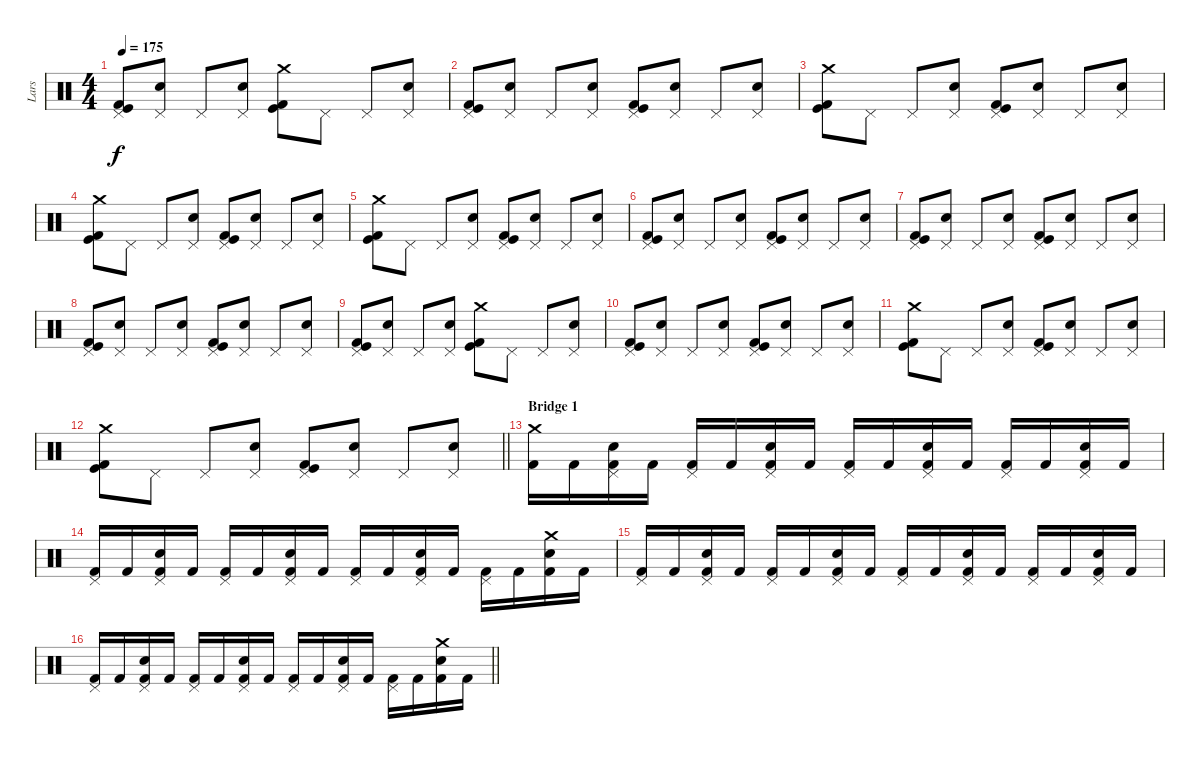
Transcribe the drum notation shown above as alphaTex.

\track ("Lars" "Lars") {instrument percussion}
\staff {score}
\articulation defaults
\ts (4 4)
\tempo 175
\clef neutral
\ks c
("Pedal Hi-Hat (hit)" "Kick (hit)" "Kick (hit) 2").8{dy f} ("Pedal Hi-Hat (hit)" "Electric Snare (hit)").8 "Pedal Hi-Hat (hit)".8 ("Pedal Hi-Hat (hit)" "Electric Snare (hit)").8 ("Crash medium (hit)" "Kick (hit)" "Kick (hit) 2").8 "Pedal Hi-Hat (hit)".8 "Pedal Hi-Hat (hit)".8 ("Pedal Hi-Hat (hit)" "Electric Snare (hit)").8 |
("Pedal Hi-Hat (hit)" "Kick (hit)" "Kick (hit) 2").8 ("Pedal Hi-Hat (hit)" "Electric Snare (hit)").8 "Pedal Hi-Hat (hit)".8 ("Pedal Hi-Hat (hit)" "Electric Snare (hit)").8 ("Pedal Hi-Hat (hit)" "Kick (hit)" "Kick (hit) 2").8 ("Pedal Hi-Hat (hit)" "Electric Snare (hit)").8 "Pedal Hi-Hat (hit)".8 ("Pedal Hi-Hat (hit)" "Electric Snare (hit)").8 |
("Crash medium (hit)" "Kick (hit)" "Kick (hit) 2").8 "Pedal Hi-Hat (hit)".8 "Pedal Hi-Hat (hit)".8 ("Pedal Hi-Hat (hit)" "Electric Snare (hit)").8 ("Pedal Hi-Hat (hit)" "Kick (hit)" "Kick (hit) 2").8 ("Pedal Hi-Hat (hit)" "Electric Snare (hit)").8 "Pedal Hi-Hat (hit)".8 ("Pedal Hi-Hat (hit)" "Electric Snare (hit)").8 |
("Crash medium (hit)" "Kick (hit)" "Kick (hit) 2").8 "Pedal Hi-Hat (hit)".8 "Pedal Hi-Hat (hit)".8 ("Pedal Hi-Hat (hit)" "Electric Snare (hit)").8 ("Pedal Hi-Hat (hit)" "Kick (hit)" "Kick (hit) 2").8 ("Pedal Hi-Hat (hit)" "Electric Snare (hit)").8 "Pedal Hi-Hat (hit)".8 ("Pedal Hi-Hat (hit)" "Electric Snare (hit)").8 |
("Crash medium (hit)" "Kick (hit)" "Kick (hit) 2").8 "Pedal Hi-Hat (hit)".8 "Pedal Hi-Hat (hit)".8 ("Pedal Hi-Hat (hit)" "Electric Snare (hit)").8 ("Pedal Hi-Hat (hit)" "Kick (hit)" "Kick (hit) 2").8 ("Pedal Hi-Hat (hit)" "Electric Snare (hit)").8 "Pedal Hi-Hat (hit)".8 ("Pedal Hi-Hat (hit)" "Electric Snare (hit)").8 |
("Pedal Hi-Hat (hit)" "Kick (hit)" "Kick (hit) 2").8 ("Pedal Hi-Hat (hit)" "Electric Snare (hit)").8 "Pedal Hi-Hat (hit)".8 ("Pedal Hi-Hat (hit)" "Electric Snare (hit)").8 ("Pedal Hi-Hat (hit)" "Kick (hit)" "Kick (hit) 2").8 ("Pedal Hi-Hat (hit)" "Electric Snare (hit)").8 "Pedal Hi-Hat (hit)".8 ("Pedal Hi-Hat (hit)" "Electric Snare (hit)").8 |
("Pedal Hi-Hat (hit)" "Kick (hit)" "Kick (hit) 2").8 ("Pedal Hi-Hat (hit)" "Electric Snare (hit)").8 "Pedal Hi-Hat (hit)".8 ("Pedal Hi-Hat (hit)" "Electric Snare (hit)").8 ("Pedal Hi-Hat (hit)" "Kick (hit)" "Kick (hit) 2").8 ("Pedal Hi-Hat (hit)" "Electric Snare (hit)").8 "Pedal Hi-Hat (hit)".8 ("Pedal Hi-Hat (hit)" "Electric Snare (hit)").8 |
("Pedal Hi-Hat (hit)" "Kick (hit)" "Kick (hit) 2").8 ("Pedal Hi-Hat (hit)" "Electric Snare (hit)").8 "Pedal Hi-Hat (hit)".8 ("Pedal Hi-Hat (hit)" "Electric Snare (hit)").8 ("Pedal Hi-Hat (hit)" "Kick (hit)" "Kick (hit) 2").8 ("Pedal Hi-Hat (hit)" "Electric Snare (hit)").8 "Pedal Hi-Hat (hit)".8 ("Pedal Hi-Hat (hit)" "Electric Snare (hit)").8 |
("Pedal Hi-Hat (hit)" "Kick (hit)" "Kick (hit) 2").8 ("Pedal Hi-Hat (hit)" "Electric Snare (hit)").8 "Pedal Hi-Hat (hit)".8 ("Pedal Hi-Hat (hit)" "Electric Snare (hit)").8 ("Crash medium (hit)" "Kick (hit)" "Kick (hit) 2").8 "Pedal Hi-Hat (hit)".8 "Pedal Hi-Hat (hit)".8 ("Pedal Hi-Hat (hit)" "Electric Snare (hit)").8 |
("Pedal Hi-Hat (hit)" "Kick (hit)" "Kick (hit) 2").8 ("Pedal Hi-Hat (hit)" "Electric Snare (hit)").8 "Pedal Hi-Hat (hit)".8 ("Pedal Hi-Hat (hit)" "Electric Snare (hit)").8 ("Pedal Hi-Hat (hit)" "Kick (hit)" "Kick (hit) 2").8 ("Pedal Hi-Hat (hit)" "Electric Snare (hit)").8 "Pedal Hi-Hat (hit)".8 ("Pedal Hi-Hat (hit)" "Electric Snare (hit)").8 |
("Crash medium (hit)" "Kick (hit)" "Kick (hit) 2").8 "Pedal Hi-Hat (hit)".8 "Pedal Hi-Hat (hit)".8 ("Pedal Hi-Hat (hit)" "Electric Snare (hit)").8 ("Pedal Hi-Hat (hit)" "Kick (hit)" "Kick (hit) 2").8 ("Pedal Hi-Hat (hit)" "Electric Snare (hit)").8 "Pedal Hi-Hat (hit)".8 ("Pedal Hi-Hat (hit)" "Electric Snare (hit)").8 |
\barLineRight lightlight
("Crash medium (hit)" "Kick (hit)" "Kick (hit) 2").8 "Pedal Hi-Hat (hit)".8 "Pedal Hi-Hat (hit)".8 ("Pedal Hi-Hat (hit)" "Electric Snare (hit)").8 ("Pedal Hi-Hat (hit)" "Kick (hit)" "Kick (hit) 2").8 ("Pedal Hi-Hat (hit)" "Electric Snare (hit)").8 "Pedal Hi-Hat (hit)".8 ("Pedal Hi-Hat (hit)" "Electric Snare (hit)").8 |
\section ("" "Bridge 1")
("Crash medium (hit)" "Kick (hit) 2").16 "Kick (hit) 2".16 ("Pedal Hi-Hat (hit)" "Electric Snare (hit)" "Kick (hit) 2").16 "Kick (hit) 2".16 ("Pedal Hi-Hat (hit)" "Kick (hit) 2").16 "Kick (hit) 2".16 ("Pedal Hi-Hat (hit)" "Electric Snare (hit)" "Kick (hit) 2").16 "Kick (hit) 2".16 ("Pedal Hi-Hat (hit)" "Kick (hit) 2").16 "Kick (hit) 2".16 ("Pedal Hi-Hat (hit)" "Electric Snare (hit)" "Kick (hit) 2").16 "Kick (hit) 2".16 ("Pedal Hi-Hat (hit)" "Kick (hit) 2").16 "Kick (hit) 2".16 ("Pedal Hi-Hat (hit)" "Electric Snare (hit)" "Kick (hit) 2").16 "Kick (hit) 2".16 |
("Pedal Hi-Hat (hit)" "Kick (hit) 2").16 "Kick (hit) 2".16 ("Pedal Hi-Hat (hit)" "Electric Snare (hit)" "Kick (hit) 2").16 "Kick (hit) 2".16 ("Pedal Hi-Hat (hit)" "Kick (hit) 2").16 "Kick (hit) 2".16 ("Pedal Hi-Hat (hit)" "Electric Snare (hit)" "Kick (hit) 2").16 "Kick (hit) 2".16 ("Pedal Hi-Hat (hit)" "Kick (hit) 2").16 "Kick (hit) 2".16 ("Pedal Hi-Hat (hit)" "Electric Snare (hit)" "Kick (hit) 2").16 "Kick (hit) 2".16 ("Pedal Hi-Hat (hit)" "Kick (hit) 2").16 "Kick (hit) 2".16 ("Crash medium (hit)" "Electric Snare (hit)" "Kick (hit) 2").16 "Kick (hit) 2".16 |
("Pedal Hi-Hat (hit)" "Kick (hit) 2").16 "Kick (hit) 2".16 ("Pedal Hi-Hat (hit)" "Electric Snare (hit)" "Kick (hit) 2").16 "Kick (hit) 2".16 ("Pedal Hi-Hat (hit)" "Kick (hit) 2").16 "Kick (hit) 2".16 ("Pedal Hi-Hat (hit)" "Electric Snare (hit)" "Kick (hit) 2").16 "Kick (hit) 2".16 ("Pedal Hi-Hat (hit)" "Kick (hit) 2").16 "Kick (hit) 2".16 ("Pedal Hi-Hat (hit)" "Electric Snare (hit)" "Kick (hit) 2").16 "Kick (hit) 2".16 ("Pedal Hi-Hat (hit)" "Kick (hit) 2").16 "Kick (hit) 2".16 ("Pedal Hi-Hat (hit)" "Electric Snare (hit)" "Kick (hit) 2").16 "Kick (hit) 2".16 |
\barLineRight lightlight
("Pedal Hi-Hat (hit)" "Kick (hit) 2").16 "Kick (hit) 2".16 ("Pedal Hi-Hat (hit)" "Electric Snare (hit)" "Kick (hit) 2").16 "Kick (hit) 2".16 ("Pedal Hi-Hat (hit)" "Kick (hit) 2").16 "Kick (hit) 2".16 ("Pedal Hi-Hat (hit)" "Electric Snare (hit)" "Kick (hit) 2").16 "Kick (hit) 2".16 ("Pedal Hi-Hat (hit)" "Kick (hit) 2").16 "Kick (hit) 2".16 ("Pedal Hi-Hat (hit)" "Electric Snare (hit)" "Kick (hit) 2").16 "Kick (hit) 2".16 ("Pedal Hi-Hat (hit)" "Kick (hit) 2").16 "Kick (hit) 2".16 ("Crash medium (hit)" "Electric Snare (hit)" "Kick (hit) 2").16 "Kick (hit) 2".16
